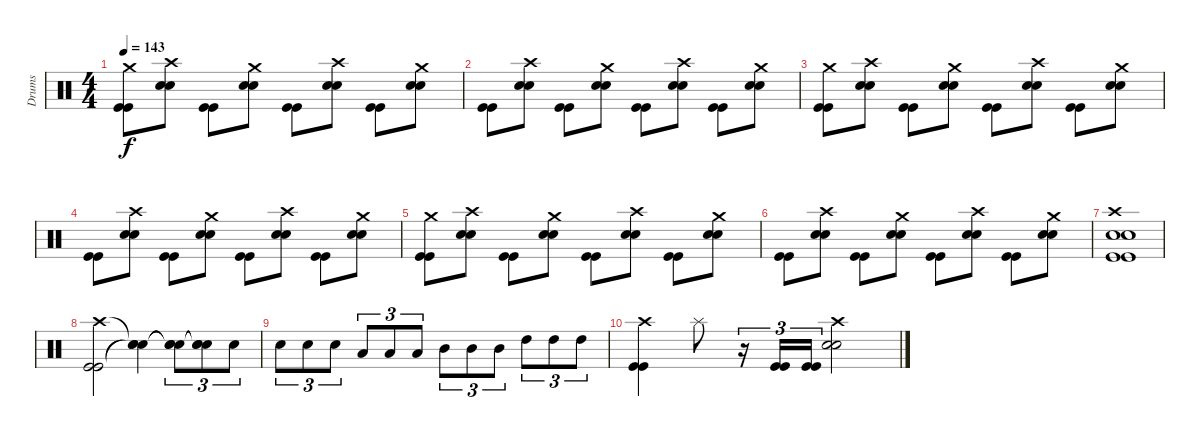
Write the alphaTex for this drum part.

\track ("Drums" "Drums") {instrument percussion}
\staff {score}
\articulation defaults
\ts (4 4)
\tempo 143
\clef neutral
\ks c
("Crash medium (hit)" "Kick (hit)" "Kick (hit)").8{dy f} ("Crash high (hit)" "Electric Snare (hit)" "Electric Snare (hit)").8 ("Kick (hit)" "Kick (hit)").8 ("Crash medium (hit)" "Electric Snare (hit)" "Electric Snare (hit)").8 ("Kick (hit)" "Kick (hit)").8 ("Crash high (hit)" "Electric Snare (hit)" "Electric Snare (hit)").8 ("Kick (hit)" "Kick (hit)").8 ("Crash medium (hit)" "Electric Snare (hit)" "Electric Snare (hit)").8 |
("Kick (hit)" "Kick (hit)").8 ("Crash high (hit)" "Electric Snare (hit)" "Electric Snare (hit)").8 ("Kick (hit)" "Kick (hit)").8 ("Crash medium (hit)" "Electric Snare (hit)" "Electric Snare (hit)").8 ("Kick (hit)" "Kick (hit)").8 ("Crash high (hit)" "Electric Snare (hit)" "Electric Snare (hit)").8 ("Kick (hit)" "Kick (hit)").8 ("Crash medium (hit)" "Electric Snare (hit)" "Electric Snare (hit)").8 |
("Crash medium (hit)" "Kick (hit)" "Kick (hit)").8 ("Crash high (hit)" "Electric Snare (hit)" "Electric Snare (hit)").8 ("Kick (hit)" "Kick (hit)").8 ("Crash medium (hit)" "Electric Snare (hit)" "Electric Snare (hit)").8 ("Kick (hit)" "Kick (hit)").8 ("Crash high (hit)" "Electric Snare (hit)" "Electric Snare (hit)").8 ("Kick (hit)" "Kick (hit)").8 ("Crash medium (hit)" "Electric Snare (hit)" "Electric Snare (hit)").8 |
("Kick (hit)" "Kick (hit)").8 ("Crash high (hit)" "Electric Snare (hit)" "Electric Snare (hit)").8 ("Kick (hit)" "Kick (hit)").8 ("Crash medium (hit)" "Electric Snare (hit)" "Electric Snare (hit)").8 ("Kick (hit)" "Kick (hit)").8 ("Crash high (hit)" "Electric Snare (hit)" "Electric Snare (hit)").8 ("Kick (hit)" "Kick (hit)").8 ("Crash medium (hit)" "Electric Snare (hit)" "Electric Snare (hit)").8 |
("Crash medium (hit)" "Kick (hit)" "Kick (hit)").8 ("Crash high (hit)" "Electric Snare (hit)" "Electric Snare (hit)").8 ("Kick (hit)" "Kick (hit)").8 ("Crash medium (hit)" "Electric Snare (hit)" "Electric Snare (hit)").8 ("Kick (hit)" "Kick (hit)").8 ("Crash high (hit)" "Electric Snare (hit)" "Electric Snare (hit)").8 ("Kick (hit)" "Kick (hit)").8 ("Crash medium (hit)" "Electric Snare (hit)" "Electric Snare (hit)").8 |
("Kick (hit)" "Kick (hit)").8 ("Crash high (hit)" "Electric Snare (hit)" "Electric Snare (hit)").8 ("Kick (hit)" "Kick (hit)").8 ("Crash medium (hit)" "Electric Snare (hit)" "Electric Snare (hit)").8 ("Kick (hit)" "Kick (hit)").8 ("Crash high (hit)" "Electric Snare (hit)" "Electric Snare (hit)").8 ("Kick (hit)" "Kick (hit)").8 ("Crash medium (hit)" "Electric Snare (hit)" "Electric Snare (hit)").8 |
("Crash high (hit)" "Electric Snare (hit)" "Electric Snare (hit)" "Kick (hit)" "Kick (hit)").1 |
("Crash high (hit)" "Kick (hit)" "Kick (hit)").2 ("Snare (hit)"{t} "Snare (hit)"{t} "Snare (hit)"{t}).4 ("Snare (hit)"{t} "Snare (hit)"{t} "Snare (hit)"{t}).8{tu (3 2)} ("Snare (hit)"{t} "Snare (hit)"{t} "Snare (hit)"{t}).8{tu (3 2)} "Snare (hit) 2".8{tu (3 2)} |
"Electric Snare (hit)".8{tu (3 2)} "Electric Snare (hit)".8{tu (3 2)} "Electric Snare (hit)".8{tu (3 2)} "Low Tom (hit)".8{tu (3 2)} "Low Tom (hit)".8{tu (3 2)} "Low Tom (hit)".8{tu (3 2)} "Mid Tom (hit)".8{tu (3 2)} "Mid Tom (hit)".8{tu (3 2)} "Mid Tom (hit)".8{tu (3 2)} "High Tom (hit)".8{tu (3 2)} "High Tom (hit)".8{tu (3 2)} "High Tom (hit)".8{tu (3 2)} |
("Crash high (hit)" "Kick (hit)" "Kick (hit)").4 "Splash (hit)".8 r.16{tu (3 2)} ("Kick (hit)" "Kick (hit)").16{tu (3 2)} ("Kick (hit)" "Kick (hit)").16{tu (3 2)} ("Crash high (hit)" "Electric Snare (hit)" "Electric Snare (hit)").2
